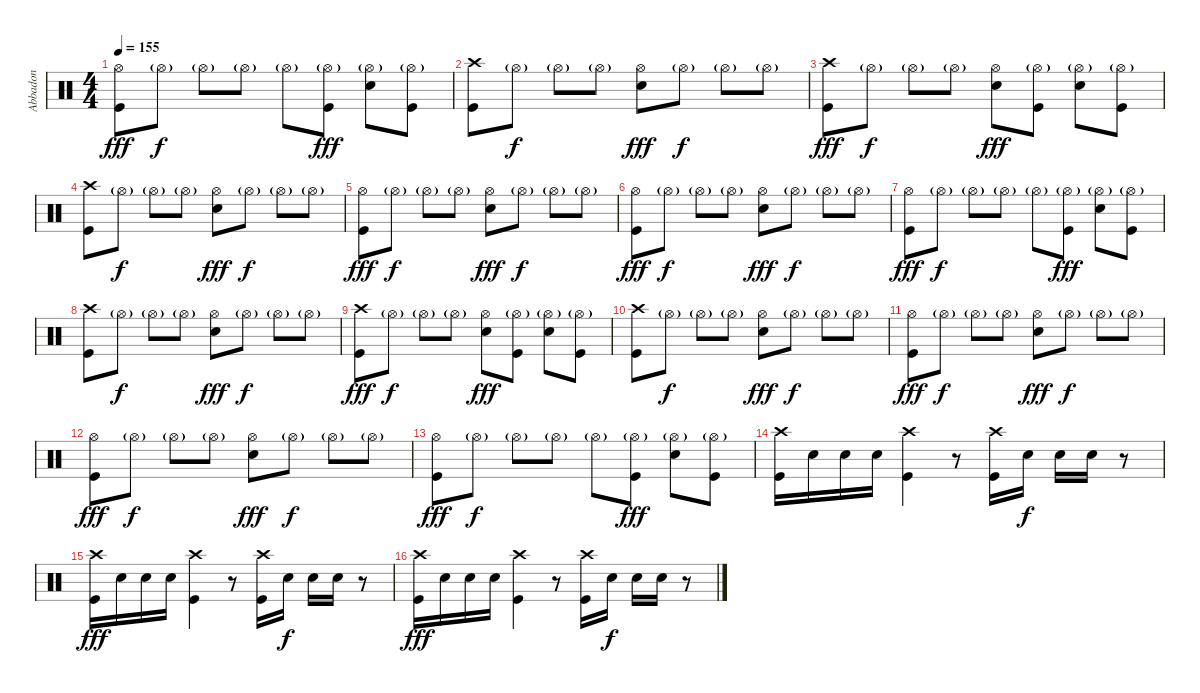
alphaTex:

\track ("Abbadon" "Abbadon") {instrument percussion}
\staff {score}
\articulation defaults
\ts (4 4)
\tempo 155
\clef neutral
\ks c
("Hi-Hat (open)" "Kick (hit)").8{dy fff} "Hi-Hat (open)"{g}.8{dy f} "Hi-Hat (open)"{g}.8 "Hi-Hat (open)"{g}.8 "Hi-Hat (open)"{g}.8 ("Hi-Hat (open)"{g} "Kick (hit)").8{dy fff} ("Hi-Hat (open)"{g} "Electric Snare (hit)").8 ("Hi-Hat (open)"{g} "Kick (hit)").8 |
("Crash high (hit)" "Kick (hit)").8 "Hi-Hat (open)"{g}.8{dy f} "Hi-Hat (open)"{g}.8 "Hi-Hat (open)"{g}.8 ("Hi-Hat (open)" "Electric Snare (hit)").8{dy fff} "Hi-Hat (open)"{g}.8{dy f} "Hi-Hat (open)"{g}.8 "Hi-Hat (open)"{g}.8 |
("Crash high (hit)" "Kick (hit)").8{dy fff} "Hi-Hat (open)"{g}.8{dy f} "Hi-Hat (open)"{g}.8 "Hi-Hat (open)"{g}.8 ("Hi-Hat (open)" "Electric Snare (hit)").8{dy fff} ("Hi-Hat (open)"{g} "Kick (hit)").8 ("Hi-Hat (open)"{g} "Electric Snare (hit)").8 ("Hi-Hat (open)"{g} "Kick (hit)").8 |
("Crash high (hit)" "Kick (hit)").8 "Hi-Hat (open)"{g}.8{dy f} "Hi-Hat (open)"{g}.8 "Hi-Hat (open)"{g}.8 ("Hi-Hat (open)" "Electric Snare (hit)").8{dy fff} "Hi-Hat (open)"{g}.8{dy f} "Hi-Hat (open)"{g}.8 "Hi-Hat (open)"{g}.8 |
("Hi-Hat (open)" "Kick (hit)").8{dy fff} "Hi-Hat (open)"{g}.8{dy f} "Hi-Hat (open)"{g}.8 "Hi-Hat (open)"{g}.8 ("Hi-Hat (open)" "Electric Snare (hit)").8{dy fff} "Hi-Hat (open)"{g}.8{dy f} "Hi-Hat (open)"{g}.8 "Hi-Hat (open)"{g}.8 |
("Hi-Hat (open)" "Kick (hit)").8{dy fff} "Hi-Hat (open)"{g}.8{dy f} "Hi-Hat (open)"{g}.8 "Hi-Hat (open)"{g}.8 ("Hi-Hat (open)" "Electric Snare (hit)").8{dy fff} "Hi-Hat (open)"{g}.8{dy f} "Hi-Hat (open)"{g}.8 "Hi-Hat (open)"{g}.8 |
("Hi-Hat (open)" "Kick (hit)").8{dy fff} "Hi-Hat (open)"{g}.8{dy f} "Hi-Hat (open)"{g}.8 "Hi-Hat (open)"{g}.8 "Hi-Hat (open)"{g}.8 ("Hi-Hat (open)"{g} "Kick (hit)").8{dy fff} ("Hi-Hat (open)"{g} "Electric Snare (hit)").8 ("Hi-Hat (open)"{g} "Kick (hit)").8 |
("Crash high (hit)" "Kick (hit)").8 "Hi-Hat (open)"{g}.8{dy f} "Hi-Hat (open)"{g}.8 "Hi-Hat (open)"{g}.8 ("Hi-Hat (open)" "Electric Snare (hit)").8{dy fff} "Hi-Hat (open)"{g}.8{dy f} "Hi-Hat (open)"{g}.8 "Hi-Hat (open)"{g}.8 |
("Crash high (hit)" "Kick (hit)").8{dy fff} "Hi-Hat (open)"{g}.8{dy f} "Hi-Hat (open)"{g}.8 "Hi-Hat (open)"{g}.8 ("Hi-Hat (open)" "Electric Snare (hit)").8{dy fff} ("Hi-Hat (open)"{g} "Kick (hit)").8 ("Hi-Hat (open)"{g} "Electric Snare (hit)").8 ("Hi-Hat (open)"{g} "Kick (hit)").8 |
("Crash high (hit)" "Kick (hit)").8 "Hi-Hat (open)"{g}.8{dy f} "Hi-Hat (open)"{g}.8 "Hi-Hat (open)"{g}.8 ("Hi-Hat (open)" "Electric Snare (hit)").8{dy fff} "Hi-Hat (open)"{g}.8{dy f} "Hi-Hat (open)"{g}.8 "Hi-Hat (open)"{g}.8 |
("Hi-Hat (open)" "Kick (hit)").8{dy fff} "Hi-Hat (open)"{g}.8{dy f} "Hi-Hat (open)"{g}.8 "Hi-Hat (open)"{g}.8 ("Hi-Hat (open)" "Electric Snare (hit)").8{dy fff} "Hi-Hat (open)"{g}.8{dy f} "Hi-Hat (open)"{g}.8 "Hi-Hat (open)"{g}.8 |
("Hi-Hat (open)" "Kick (hit)").8{dy fff} "Hi-Hat (open)"{g}.8{dy f} "Hi-Hat (open)"{g}.8 "Hi-Hat (open)"{g}.8 ("Hi-Hat (open)" "Electric Snare (hit)").8{dy fff} "Hi-Hat (open)"{g}.8{dy f} "Hi-Hat (open)"{g}.8 "Hi-Hat (open)"{g}.8 |
("Hi-Hat (open)" "Kick (hit)").8{dy fff} "Hi-Hat (open)"{g}.8{dy f} "Hi-Hat (open)"{g}.8 "Hi-Hat (open)"{g}.8 "Hi-Hat (open)"{g}.8 ("Hi-Hat (open)"{g} "Kick (hit)").8{dy fff} ("Hi-Hat (open)"{g} "Electric Snare (hit)").8 ("Hi-Hat (open)"{g} "Kick (hit)").8 |
("Crash high (hit)" "Kick (hit)").16 "Electric Snare (hit)".16 "Electric Snare (hit)".16 "Electric Snare (hit)".16 ("Crash high (hit)" "Kick (hit)").4 r.8 ("Crash high (hit)" "Kick (hit)").16 "Electric Snare (hit)".16{dy f} "Electric Snare (hit)".16 "Electric Snare (hit)".16 r.8 |
("Crash high (hit)" "Kick (hit)").16{dy fff} "Electric Snare (hit)".16 "Electric Snare (hit)".16 "Electric Snare (hit)".16 ("Crash high (hit)" "Kick (hit)").4 r.8 ("Crash high (hit)" "Kick (hit)").16 "Electric Snare (hit)".16{dy f} "Electric Snare (hit)".16 "Electric Snare (hit)".16 r.8 |
("Crash high (hit)" "Kick (hit)").16{dy fff} "Electric Snare (hit)".16 "Electric Snare (hit)".16 "Electric Snare (hit)".16 ("Crash high (hit)" "Kick (hit)").4 r.8 ("Crash high (hit)" "Kick (hit)").16 "Electric Snare (hit)".16{dy f} "Electric Snare (hit)".16 "Electric Snare (hit)".16 r.8
